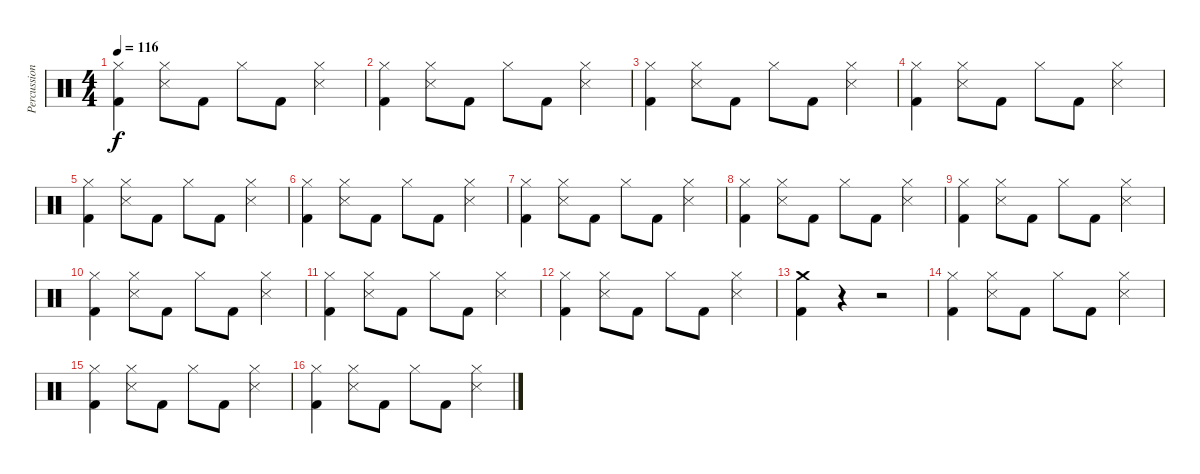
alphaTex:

\track ("Percussions" "Percussion") {instrument percussion}
\staff {score}
\articulation defaults
\ts (4 4)
\tempo 116
\clef neutral
\ks c
("Hi-Hat (closed)" "Kick (hit) 2").4{dy f} ("Hi-Hat (closed)" "Snare (side stick) 3").8 "Kick (hit) 2".8 "Hi-Hat (closed)".8 "Kick (hit) 2".8 ("Hi-Hat (closed)" "Snare (side stick) 3").4 |
("Hi-Hat (closed)" "Kick (hit) 2").4 ("Hi-Hat (closed)" "Snare (side stick) 3").8 "Kick (hit) 2".8 "Hi-Hat (closed)".8 "Kick (hit) 2".8 ("Hi-Hat (closed)" "Snare (side stick) 3").4 |
("Hi-Hat (closed)" "Kick (hit) 2").4 ("Hi-Hat (closed)" "Snare (side stick) 3").8 "Kick (hit) 2".8 "Hi-Hat (closed)".8 "Kick (hit) 2".8 ("Hi-Hat (closed)" "Snare (side stick) 3").4 |
("Hi-Hat (closed)" "Kick (hit) 2").4 ("Hi-Hat (closed)" "Snare (side stick) 3").8 "Kick (hit) 2".8 "Hi-Hat (closed)".8 "Kick (hit) 2".8 ("Hi-Hat (closed)" "Snare (side stick) 3").4 |
("Hi-Hat (closed)" "Kick (hit) 2").4 ("Hi-Hat (closed)" "Snare (side stick) 3").8 "Kick (hit) 2".8 "Hi-Hat (closed)".8 "Kick (hit) 2".8 ("Hi-Hat (closed)" "Snare (side stick) 3").4 |
("Hi-Hat (closed)" "Kick (hit) 2").4 ("Hi-Hat (closed)" "Snare (side stick) 3").8 "Kick (hit) 2".8 "Hi-Hat (closed)".8 "Kick (hit) 2".8 ("Hi-Hat (closed)" "Snare (side stick) 3").4 |
("Hi-Hat (closed)" "Kick (hit) 2").4 ("Hi-Hat (closed)" "Snare (side stick) 3").8 "Kick (hit) 2".8 "Hi-Hat (closed)".8 "Kick (hit) 2".8 ("Hi-Hat (closed)" "Snare (side stick) 3").4 |
("Hi-Hat (closed)" "Kick (hit) 2").4 ("Hi-Hat (closed)" "Snare (side stick) 3").8 "Kick (hit) 2".8 "Hi-Hat (closed)".8 "Kick (hit) 2".8 ("Hi-Hat (closed)" "Snare (side stick) 3").4 |
("Hi-Hat (closed)" "Kick (hit) 2").4 ("Hi-Hat (closed)" "Snare (side stick) 3").8 "Kick (hit) 2".8 "Hi-Hat (closed)".8 "Kick (hit) 2".8 ("Hi-Hat (closed)" "Snare (side stick) 3").4 |
("Hi-Hat (closed)" "Kick (hit) 2").4 ("Hi-Hat (closed)" "Snare (side stick) 3").8 "Kick (hit) 2".8 "Hi-Hat (closed)".8 "Kick (hit) 2".8 ("Hi-Hat (closed)" "Snare (side stick) 3").4 |
("Hi-Hat (closed)" "Kick (hit) 2").4 ("Hi-Hat (closed)" "Snare (side stick) 3").8 "Kick (hit) 2".8 "Hi-Hat (closed)".8 "Kick (hit) 2".8 ("Hi-Hat (closed)" "Snare (side stick) 3").4 |
("Hi-Hat (closed)" "Kick (hit) 2").4 ("Hi-Hat (closed)" "Snare (side stick) 3").8 "Kick (hit) 2".8 "Hi-Hat (closed)".8 "Kick (hit) 2".8 ("Hi-Hat (closed)" "Snare (side stick) 3").4 |
("Crash medium (hit)" "Kick (hit) 2").4 r.4 r.2 |
("Hi-Hat (closed)" "Kick (hit) 2").4 ("Hi-Hat (closed)" "Snare (side stick) 3").8 "Kick (hit) 2".8 "Hi-Hat (closed)".8 "Kick (hit) 2".8 ("Hi-Hat (closed)" "Snare (side stick) 3").4 |
("Hi-Hat (closed)" "Kick (hit) 2").4 ("Hi-Hat (closed)" "Snare (side stick) 3").8 "Kick (hit) 2".8 "Hi-Hat (closed)".8 "Kick (hit) 2".8 ("Hi-Hat (closed)" "Snare (side stick) 3").4 |
("Hi-Hat (closed)" "Kick (hit) 2").4 ("Hi-Hat (closed)" "Snare (side stick) 3").8 "Kick (hit) 2".8 "Hi-Hat (closed)".8 "Kick (hit) 2".8 ("Hi-Hat (closed)" "Snare (side stick) 3").4
